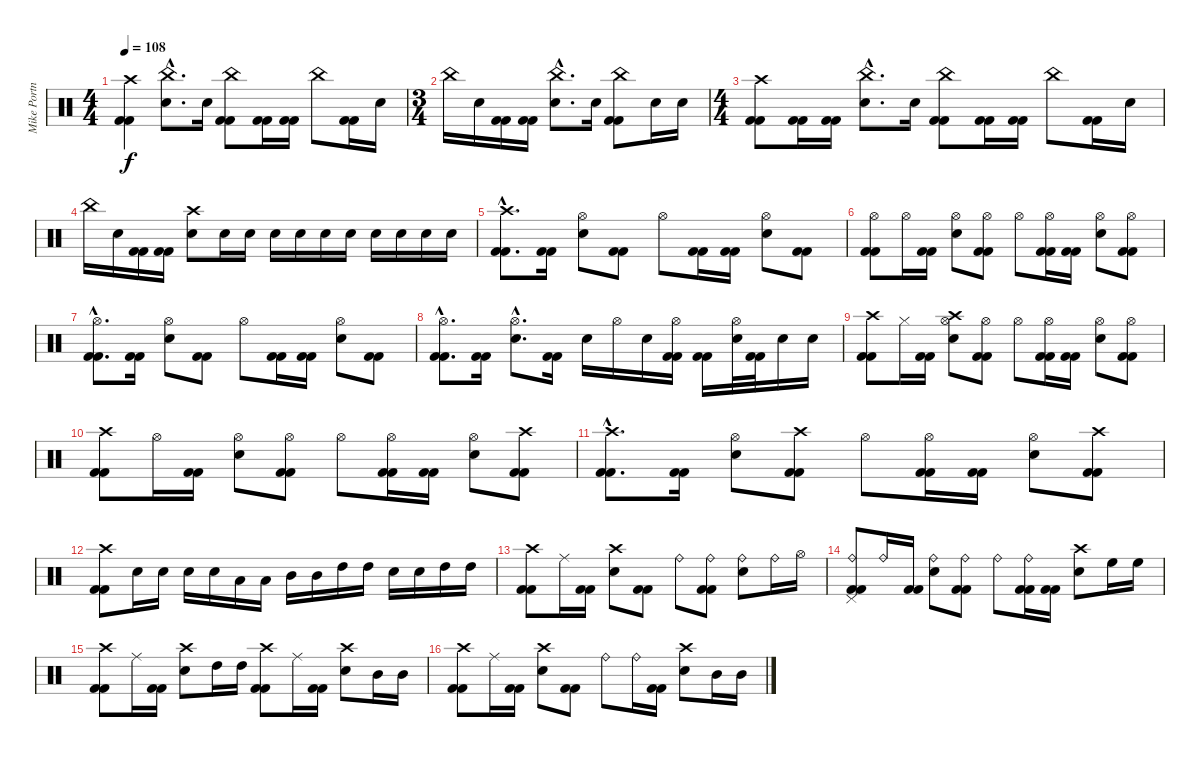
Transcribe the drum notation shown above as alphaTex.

\track ("Mike Portnoy - Drums" "Mike Portn") {instrument percussion}
\staff {score}
\articulation defaults
\ts (4 4)
\tempo 108
\clef neutral
\ks c
("Crash high (hit)" "Kick (hit) 2" "Kick (hit) 2").4{dy f} ("China (hit)"{hac} "Snare (hit) 2"{hac}).8{d} "Snare (hit) 2".16 ("China (hit)" "Kick (hit) 2" "Kick (hit) 2").8 ("Kick (hit) 2" "Kick (hit) 2").16 ("Kick (hit) 2" "Kick (hit) 2").16 "China (hit)".8 ("Kick (hit) 2" "Kick (hit) 2").16 "Snare (hit) 2".16 |
\ts (3 4)
"China (hit)".16 "Snare (hit) 2".16 ("Kick (hit) 2" "Kick (hit) 2").16 ("Kick (hit) 2" "Kick (hit) 2").16 ("China (hit)"{hac} "Snare (hit) 2"{hac}).8{d} "Snare (hit) 2".16 ("China (hit)" "Kick (hit) 2" "Kick (hit) 2").8 "Snare (hit) 2".16 "Snare (hit) 2".16 |
\ts (4 4)
("Crash high (hit)" "Kick (hit) 2" "Kick (hit) 2").8 ("Kick (hit) 2" "Kick (hit) 2").16 ("Kick (hit) 2" "Kick (hit) 2").16 ("China (hit)"{hac} "Snare (hit) 2"{hac}).8{d} "Snare (hit) 2".16 ("China (hit)" "Kick (hit) 2" "Kick (hit) 2").8 ("Kick (hit) 2" "Kick (hit) 2").16 ("Kick (hit) 2" "Kick (hit) 2").16 "China (hit)".8 ("Kick (hit) 2" "Kick (hit) 2").16 "Snare (hit) 2".16 |
"China (hit)".16 "Snare (hit) 2".16 ("Kick (hit) 2" "Kick (hit) 2").16 ("Kick (hit) 2" "Kick (hit) 2").16 ("Crash high (hit)" "Snare (hit) 2").8 "Snare (hit) 2".16 "Snare (hit) 2".16 "Snare (hit) 2".16 "Snare (hit) 2".16 "Snare (hit) 2".16 "Snare (hit) 2".16 "Snare (hit) 2".16 "Snare (hit) 2".16 "Snare (hit) 2".16 "Snare (hit) 2".16 |
("Crash high (hit)"{hac} "Kick (hit) 2"{hac} "Kick (hit) 2"{hac}).8{d} ("Kick (hit) 2" "Kick (hit) 2").16 ("Hi-Hat (open)" "Snare (hit) 2").8 ("Kick (hit) 2" "Kick (hit) 2").8 "Hi-Hat (open)".8 ("Kick (hit) 2" "Kick (hit) 2").16 ("Kick (hit) 2" "Kick (hit) 2").16 ("Hi-Hat (open)" "Snare (hit) 2").8 ("Kick (hit) 2" "Kick (hit) 2").8 |
("Hi-Hat (open)" "Kick (hit) 2" "Kick (hit) 2").8 "Hi-Hat (open)".16 ("Kick (hit) 2" "Kick (hit) 2").16 ("Hi-Hat (open)" "Snare (hit) 2").8 ("Hi-Hat (open)" "Kick (hit) 2" "Kick (hit) 2").8 "Hi-Hat (open)".8 ("Hi-Hat (open)" "Kick (hit) 2" "Kick (hit) 2").16 ("Kick (hit) 2" "Kick (hit) 2").16 ("Hi-Hat (open)" "Snare (hit) 2").8 ("Hi-Hat (open)" "Kick (hit) 2" "Kick (hit) 2").8 |
("Hi-Hat (open)"{hac} "Kick (hit) 2"{hac} "Kick (hit) 2"{hac}).8{d} ("Kick (hit) 2" "Kick (hit) 2").16 ("Hi-Hat (open)" "Snare (hit) 2").8 ("Kick (hit) 2" "Kick (hit) 2").8 "Hi-Hat (open)".8 ("Kick (hit) 2" "Kick (hit) 2").16 ("Kick (hit) 2" "Kick (hit) 2").16 ("Hi-Hat (open)" "Snare (hit) 2").8 ("Kick (hit) 2" "Kick (hit) 2").8 |
("Hi-Hat (open)"{hac} "Kick (hit) 2"{hac} "Kick (hit) 2"{hac}).8{d} ("Kick (hit) 2" "Kick (hit) 2").16 ("Hi-Hat (open)"{hac} "Snare (hit) 2"{hac}).8{d} ("Kick (hit) 2" "Kick (hit) 2").16 "Snare (hit) 2".16 "Hi-Hat (open)".16 "Snare (hit) 2".16 ("Hi-Hat (open)" "Kick (hit) 2" "Kick (hit) 2").16 ("Kick (hit) 2" "Kick (hit) 2").16 ("Hi-Hat (open)" "Snare (hit) 2").32 ("Kick (hit) 2" "Kick (hit) 2").32 "Snare (hit) 2".16 "Snare (hit) 2".16 |
("Crash high (hit)" "Kick (hit) 2" "Kick (hit) 2").8 "Hi-Hat (closed)".16 ("Kick (hit) 2" "Kick (hit) 2").16 ("Crash high (hit)" "Hi-Hat (open)" "Snare (hit) 2").8 ("Hi-Hat (open)" "Kick (hit) 2" "Kick (hit) 2").8 "Hi-Hat (open)".8 ("Hi-Hat (open)" "Kick (hit) 2" "Kick (hit) 2").16 ("Kick (hit) 2" "Kick (hit) 2").16 ("Hi-Hat (open)" "Snare (hit) 2").8 ("Hi-Hat (open)" "Kick (hit) 2" "Kick (hit) 2").8 |
("Crash high (hit)" "Kick (hit) 2" "Kick (hit) 2").8 "Hi-Hat (open)".16 ("Kick (hit) 2" "Kick (hit) 2").16 ("Hi-Hat (open)" "Snare (hit) 2").8 ("Hi-Hat (open)" "Kick (hit) 2" "Kick (hit) 2").8 "Hi-Hat (open)".8 ("Hi-Hat (open)" "Kick (hit) 2" "Kick (hit) 2").16 ("Kick (hit) 2" "Kick (hit) 2").16 ("Hi-Hat (open)" "Snare (hit) 2").8 ("Crash high (hit)" "Kick (hit) 2" "Kick (hit) 2").8 |
("Crash high (hit)"{hac} "Kick (hit) 2"{hac} "Kick (hit) 2"{hac}).8{d} ("Kick (hit) 2" "Kick (hit) 2").16 ("Hi-Hat (open)" "Snare (hit) 2").8 ("Crash high (hit)" "Kick (hit) 2" "Kick (hit) 2").8 "Hi-Hat (open)".8 ("Hi-Hat (open)" "Kick (hit) 2" "Kick (hit) 2").16 ("Kick (hit) 2" "Kick (hit) 2").16 ("Hi-Hat (open)" "Snare (hit) 2").8 ("Crash high (hit)" "Kick (hit) 2" "Kick (hit) 2").8 |
("Crash high (hit)" "Kick (hit) 2" "Kick (hit) 2").8 "Snare (hit) 2".16 "Snare (hit) 2".16 "Snare (hit) 2".16 "Snare (hit) 2".16 "Low Tom (hit)".16 "Low Tom (hit)".16 "Mid Tom (hit)".16 "Mid Tom (hit)".16 "High Tom (hit)".16 "High Tom (hit)".16 "Snare (hit) 2".16 "Snare (hit) 2".16 "High Tom (hit)".16 "High Tom (hit)".16 |
("Crash high (hit)" "Kick (hit) 2" "Kick (hit) 2").8 "Ride (middle)".16 ("Kick (hit) 2" "Kick (hit) 2").16 ("Crash high (hit)" "Snare (hit) 2").8 ("Kick (hit) 2" "Kick (hit) 2").8 "Ride (bell)".8 ("Ride (bell)" "Kick (hit) 2" "Kick (hit) 2").8 ("Ride (bell)" "Snare (hit) 2").8 "Ride (bell)".16 "Hi-Hat (open)".16 |
("Ride (bell)" "Pedal Hi-Hat (hit)" "Kick (hit) 2" "Kick (hit) 2").8 "Ride (bell)".16 ("Kick (hit) 2" "Kick (hit) 2").16 ("Ride (bell)" "Snare (hit) 2").8 ("Ride (bell)" "Kick (hit) 2" "Kick (hit) 2").8 "Ride (bell)".8 ("Ride (bell)" "Kick (hit) 2" "Kick (hit) 2").16 ("Kick (hit) 2" "Kick (hit) 2").16 ("Crash high (hit)" "Snare (hit) 2").8 "High Floor Tom (hit)".16 "High Floor Tom (hit)".16 |
("Crash high (hit)" "Kick (hit) 2" "Kick (hit) 2").8 "Ride (middle)".16 ("Kick (hit) 2" "Kick (hit) 2").16 ("Crash high (hit)" "Snare (hit) 2").8 "High Tom (hit)".16 "High Tom (hit)".16 ("Crash high (hit)" "Kick (hit) 2" "Kick (hit) 2").8 "Ride (middle)".16 ("Kick (hit) 2" "Kick (hit) 2").16 ("Crash high (hit)" "Snare (hit) 2").8 "Mid Tom (hit)".16 "Mid Tom (hit)".16 |
("Crash high (hit)" "Kick (hit) 2" "Kick (hit) 2").8 "Ride (middle)".16 ("Kick (hit) 2" "Kick (hit) 2").16 ("Crash high (hit)" "Snare (hit) 2").8 ("Kick (hit) 2" "Kick (hit) 2").8 "Ride (bell)".8 "Ride (bell)".16 ("Kick (hit) 2" "Kick (hit) 2").16 ("Crash high (hit)" "Snare (hit) 2").8 "Mid Tom (hit)".16 "Mid Tom (hit)".16
